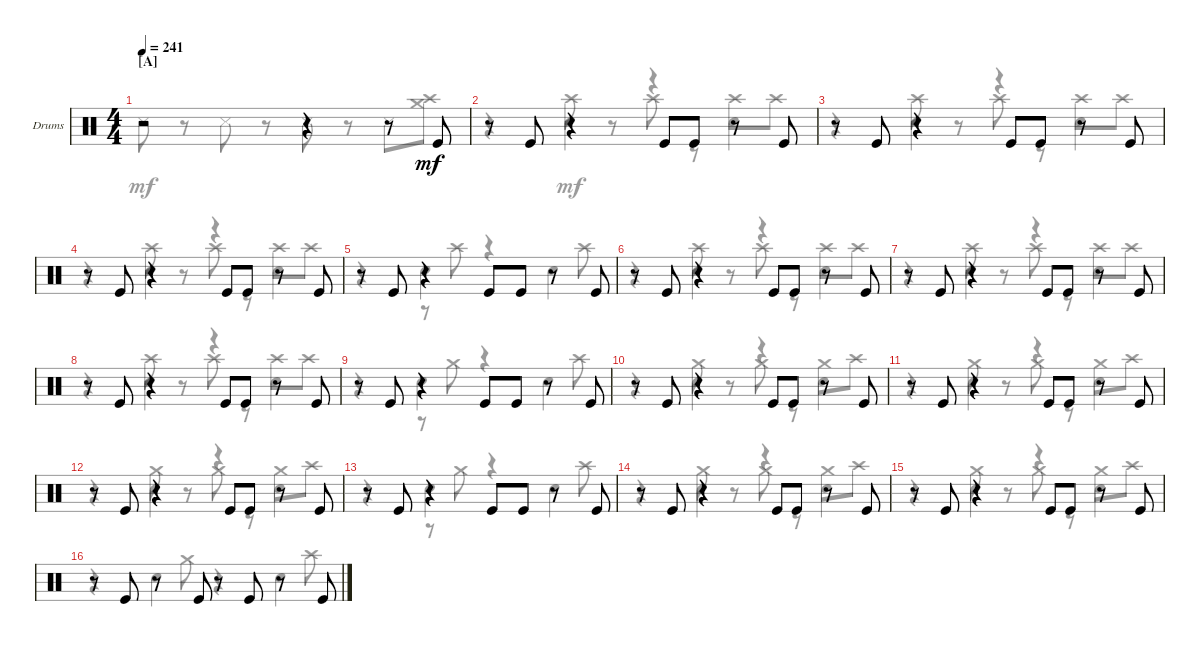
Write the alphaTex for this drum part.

\defaultSystemsLayout 4
\bracketExtendMode groupsimilarinstruments
\firstSystemTrackNameOrientation horizontal
\otherSystemsTrackNameOrientation horizontal
\track ("Drumkit" "Drums") {instrument percussion}
\staff {score}
\articulation defaults
\voice
\ts (4 4)
\section ("A" "")
\tempo 241
\clef neutral
\ks c
r.2{dy mf} r.4 r.8 "Kick (hit)".8 |
r.8 "Kick (hit)".8 r.4 "Kick (hit)".8 "Kick (hit)".8 r.8 "Kick (hit)".8 |
r.8 "Kick (hit)".8 r.4 "Kick (hit)".8 "Kick (hit)".8 r.8 "Kick (hit)".8 |
r.8 "Kick (hit)".8 r.4 "Kick (hit)".8 "Kick (hit)".8 r.8 "Kick (hit)".8 |
r.8 "Kick (hit)".8 r.4 "Kick (hit)".8 "Kick (hit)".8 r.8 "Kick (hit)".8 |
r.8 "Kick (hit)".8 r.4 "Kick (hit)".8 "Kick (hit)".8 r.8 "Kick (hit)".8 |
r.8 "Kick (hit)".8 r.4 "Kick (hit)".8 "Kick (hit)".8 r.8 "Kick (hit)".8 |
r.8 "Kick (hit)".8 r.4 "Kick (hit)".8 "Kick (hit)".8 r.8 "Kick (hit)".8 |
r.8 "Kick (hit)".8 r.4 "Kick (hit)".8 "Kick (hit)".8 r.8 "Kick (hit)".8 |
r.8 "Kick (hit)".8 r.4 "Kick (hit)".8 "Kick (hit)".8 r.8 "Kick (hit)".8 |
r.8 "Kick (hit)".8 r.4 "Kick (hit)".8 "Kick (hit)".8 r.8 "Kick (hit)".8 |
r.8 "Kick (hit)".8 r.4 "Kick (hit)".8 "Kick (hit)".8 r.8 "Kick (hit)".8 |
r.8 "Kick (hit)".8 r.4 "Kick (hit)".8 "Kick (hit)".8 r.8 "Kick (hit)".8 |
r.8 "Kick (hit)".8 r.4 "Kick (hit)".8 "Kick (hit)".8 r.8 "Kick (hit)".8 |
r.8 "Kick (hit)".8 r.4 "Kick (hit)".8 "Kick (hit)".8 r.8 "Kick (hit)".8 |
r.8 "Kick (hit)".8 r.8 "Kick (hit)".8 r.8 "Kick (hit)".8 r.8 "Kick (hit)".8
\voice
\clef neutral
\ottava regular
\simile none
\ks c
|
r.4 "Snare (hit) 2".4 r.4 "Snare (hit) 2".4 |
r.4 "Snare (hit) 2".4 r.4 "Snare (hit) 2".4 |
r.4 "Snare (hit) 2".4 r.4 "Snare (hit) 2".4 |
r.4 "Snare (hit) 2".4 r.4 "Snare (hit) 2".4 |
r.4 "Snare (hit) 2".4 r.4 "Snare (hit) 2".4 |
r.4 "Snare (hit) 2".4 r.4 "Snare (hit) 2".4 |
r.4 "Snare (hit) 2".4 r.4 "Snare (hit) 2".4 |
r.4 "Snare (hit) 2".4 r.4 "Snare (hit) 2".4 |
r.4 "Snare (hit) 2".4 r.4 "Snare (hit) 2".4 |
r.4 "Snare (hit) 2".4 r.4 "Snare (hit) 2".4 |
r.4 "Snare (hit) 2".4 r.4 "Snare (hit) 2".4 |
r.4 "Snare (hit) 2".4 r.4 "Snare (hit) 2".4 |
r.4 "Snare (hit) 2".4 r.4 "Snare (hit) 2".4 |
r.4 "Snare (hit) 2".4 r.4 "Snare (hit) 2".4 |
r.4 "Snare (hit) 2".4 r.4 "Snare (hit) 2".4
\voice
\clef neutral
\ottava regular
\simile none
\ks c "Snare (side stick) 3".8{dy mf}
r.8 "Snare (side stick) 3".8 r.8 "Snare (side stick) 3".8 r.8 "Snare (side stick) 3".8 ("Crash medium (hit)" "Crash high (hit)").8 |
r.4 "Crash high (hit)".8 r.8 "Crash high (hit)".8 r.8 "Crash high (hit)".8 "Crash high (hit)".8 |
r.4 "Crash high (hit)".8 r.8 "Crash high (hit)".8 r.8 "Crash high (hit)".8 "Crash high (hit)".8 |
r.4 "Crash high (hit)".8 r.8 "Crash high (hit)".8 r.8 "Crash high (hit)".8 "Crash high (hit)".8 |
r.4 r.8 "Crash high (hit)".8 r.4 r.8 "Crash high (hit)".8 |
r.4 "Crash high (hit)".8 r.8 "Crash high (hit)".8 r.8 "Crash high (hit)".8 "Crash high (hit)".8 |
r.4 "Crash high (hit)".8 r.8 "Crash high (hit)".8 r.8 "Crash high (hit)".8 "Crash high (hit)".8 |
r.4 "Crash high (hit)".8 r.8 "Crash high (hit)".8 r.8 "Crash high (hit)".8 "Crash high (hit)".8 |
r.4 r.8 "Crash medium (hit)".8 r.4 r.8 "Crash high (hit)".8 |
r.4 "Crash medium (hit)".8 r.8 "Crash medium (hit)".8 r.8 "Crash medium (hit)".8 "Crash high (hit)".8 |
r.4 "Crash medium (hit)".8 r.8 "Crash medium (hit)".8 r.8 "Crash medium (hit)".8 "Crash high (hit)".8 |
r.4 "Crash medium (hit)".8 r.8 "Crash medium (hit)".8 r.8 "Crash medium (hit)".8 "Crash high (hit)".8 |
r.4 r.8 "Crash medium (hit)".8 r.4 r.8 "Crash high (hit)".8 |
r.4 "Crash medium (hit)".8 r.8 "Crash medium (hit)".8 r.8 "Crash medium (hit)".8 "Crash high (hit)".8 |
r.4 "Crash medium (hit)".8 r.8 "Crash medium (hit)".8 r.8 "Crash medium (hit)".8 "Crash high (hit)".8 |
r.4 r.8 "Crash medium (hit)".8 r.4 r.8 "Crash high (hit)".8
